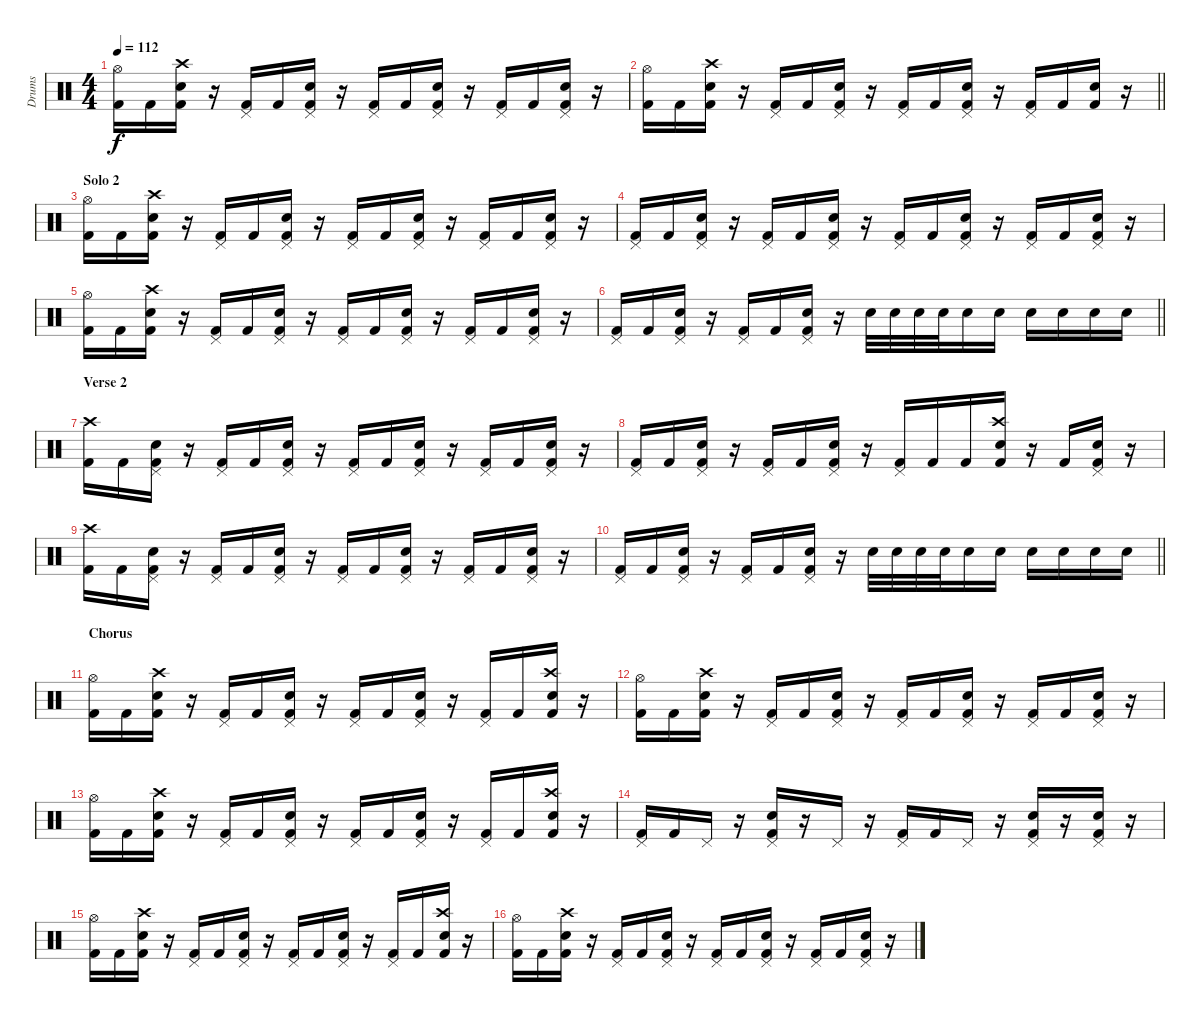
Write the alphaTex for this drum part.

\track ("Drums" "Drums") {instrument percussion}
\staff {score}
\articulation defaults
\ts (4 4)
\tempo 112
\clef neutral
\ks c
("Hi-Hat (open)" "Kick (hit) 2").16{dy f} "Kick (hit) 2".16 ("Crash high (hit)" "Snare (hit) 2" "Kick (hit) 2").16 r.16 ("Pedal Hi-Hat (hit)" "Kick (hit) 2").16 "Kick (hit) 2".16 ("Pedal Hi-Hat (hit)" "Snare (hit) 2" "Kick (hit) 2").16 r.16 ("Pedal Hi-Hat (hit)" "Kick (hit) 2").16 "Kick (hit) 2".16 ("Pedal Hi-Hat (hit)" "Snare (hit) 2" "Kick (hit) 2").16 r.16 ("Pedal Hi-Hat (hit)" "Kick (hit) 2").16 "Kick (hit) 2".16 ("Pedal Hi-Hat (hit)" "Snare (hit) 2" "Kick (hit) 2").16 r.16 |
\barLineRight lightlight
("Hi-Hat (open)" "Kick (hit) 2").16 "Kick (hit) 2".16 ("Crash high (hit)" "Snare (hit) 2" "Kick (hit) 2").16 r.16 ("Pedal Hi-Hat (hit)" "Kick (hit) 2").16 "Kick (hit) 2".16 ("Pedal Hi-Hat (hit)" "Snare (hit) 2" "Kick (hit) 2").16 r.16 ("Pedal Hi-Hat (hit)" "Kick (hit) 2").16 "Kick (hit) 2".16 ("Pedal Hi-Hat (hit)" "Snare (hit) 2" "Kick (hit) 2").16 r.16 ("Pedal Hi-Hat (hit)" "Kick (hit) 2").16 "Kick (hit) 2".16 ("Snare (hit) 2" "Kick (hit) 2").16 r.16 |
\section ("" "Solo 2")
("Hi-Hat (open)" "Kick (hit) 2").16 "Kick (hit) 2".16 ("Crash high (hit)" "Snare (hit) 2" "Kick (hit) 2").16 r.16 ("Pedal Hi-Hat (hit)" "Kick (hit) 2").16 "Kick (hit) 2".16 ("Pedal Hi-Hat (hit)" "Snare (hit) 2" "Kick (hit) 2").16 r.16 ("Pedal Hi-Hat (hit)" "Kick (hit) 2").16 "Kick (hit) 2".16 ("Pedal Hi-Hat (hit)" "Snare (hit) 2" "Kick (hit) 2").16 r.16 ("Pedal Hi-Hat (hit)" "Kick (hit) 2").16 "Kick (hit) 2".16 ("Pedal Hi-Hat (hit)" "Snare (hit) 2" "Kick (hit) 2").16 r.16 |
("Pedal Hi-Hat (hit)" "Kick (hit) 2").16 "Kick (hit) 2".16 ("Pedal Hi-Hat (hit)" "Snare (hit) 2" "Kick (hit) 2").16 r.16 ("Pedal Hi-Hat (hit)" "Kick (hit) 2").16 "Kick (hit) 2".16 ("Pedal Hi-Hat (hit)" "Snare (hit) 2" "Kick (hit) 2").16 r.16 ("Pedal Hi-Hat (hit)" "Kick (hit) 2").16 "Kick (hit) 2".16 ("Pedal Hi-Hat (hit)" "Snare (hit) 2" "Kick (hit) 2").16 r.16 ("Pedal Hi-Hat (hit)" "Kick (hit) 2").16 "Kick (hit) 2".16 ("Pedal Hi-Hat (hit)" "Snare (hit) 2" "Kick (hit) 2").16 r.16 |
("Hi-Hat (open)" "Kick (hit) 2").16 "Kick (hit) 2".16 ("Crash high (hit)" "Snare (hit) 2" "Kick (hit) 2").16 r.16 ("Pedal Hi-Hat (hit)" "Kick (hit) 2").16 "Kick (hit) 2".16 ("Pedal Hi-Hat (hit)" "Snare (hit) 2" "Kick (hit) 2").16 r.16 ("Pedal Hi-Hat (hit)" "Kick (hit) 2").16 "Kick (hit) 2".16 ("Pedal Hi-Hat (hit)" "Snare (hit) 2" "Kick (hit) 2").16 r.16 ("Pedal Hi-Hat (hit)" "Kick (hit) 2").16 "Kick (hit) 2".16 ("Pedal Hi-Hat (hit)" "Snare (hit) 2" "Kick (hit) 2").16 r.16 |
\barLineRight lightlight
("Pedal Hi-Hat (hit)" "Kick (hit) 2").16 "Kick (hit) 2".16 ("Pedal Hi-Hat (hit)" "Snare (hit) 2" "Kick (hit) 2").16 r.16 ("Pedal Hi-Hat (hit)" "Kick (hit) 2").16 "Kick (hit) 2".16 ("Pedal Hi-Hat (hit)" "Snare (hit) 2" "Kick (hit) 2").16 r.16 "Snare (hit) 2".32 "Snare (hit) 2".32 "Snare (hit) 2".32 "Snare (hit) 2".32 "Snare (hit) 2".16 "Snare (hit) 2".16 "Snare (hit) 2".16 "Snare (hit) 2".16 "Snare (hit) 2".16 "Snare (hit) 2".16 |
\section ("" "Verse 2")
("Crash high (hit)" "Kick (hit) 2").16 "Kick (hit) 2".16 ("Pedal Hi-Hat (hit)" "Snare (hit) 2" "Kick (hit) 2").16 r.16 ("Pedal Hi-Hat (hit)" "Kick (hit) 2").16 "Kick (hit) 2".16 ("Pedal Hi-Hat (hit)" "Snare (hit) 2" "Kick (hit) 2").16 r.16 ("Pedal Hi-Hat (hit)" "Kick (hit) 2").16 "Kick (hit) 2".16 ("Pedal Hi-Hat (hit)" "Snare (hit) 2" "Kick (hit) 2").16 r.16 ("Pedal Hi-Hat (hit)" "Kick (hit) 2").16 "Kick (hit) 2".16 ("Pedal Hi-Hat (hit)" "Snare (hit) 2" "Kick (hit) 2").16 r.16 |
("Pedal Hi-Hat (hit)" "Kick (hit) 2").16 "Kick (hit) 2".16 ("Pedal Hi-Hat (hit)" "Snare (hit) 2" "Kick (hit) 2").16 r.16 ("Pedal Hi-Hat (hit)" "Kick (hit) 2").16 "Kick (hit) 2".16 ("Pedal Hi-Hat (hit)" "Snare (hit) 2" "Kick (hit) 2").16 r.16 ("Pedal Hi-Hat (hit)" "Kick (hit) 2").16 "Kick (hit) 2".16 "Kick (hit) 2".16 ("Crash high (hit)" "Snare (hit) 2" "Kick (hit) 2").16 r.16 "Kick (hit) 2".16 ("Pedal Hi-Hat (hit)" "Snare (hit) 2" "Kick (hit) 2").16 r.16 |
("Crash high (hit)" "Kick (hit) 2").16 "Kick (hit) 2".16 ("Pedal Hi-Hat (hit)" "Snare (hit) 2" "Kick (hit) 2").16 r.16 ("Pedal Hi-Hat (hit)" "Kick (hit) 2").16 "Kick (hit) 2".16 ("Pedal Hi-Hat (hit)" "Snare (hit) 2" "Kick (hit) 2").16 r.16 ("Pedal Hi-Hat (hit)" "Kick (hit) 2").16 "Kick (hit) 2".16 ("Pedal Hi-Hat (hit)" "Snare (hit) 2" "Kick (hit) 2").16 r.16 ("Pedal Hi-Hat (hit)" "Kick (hit) 2").16 "Kick (hit) 2".16 ("Pedal Hi-Hat (hit)" "Snare (hit) 2" "Kick (hit) 2").16 r.16 |
\barLineRight lightlight
("Pedal Hi-Hat (hit)" "Kick (hit) 2").16 "Kick (hit) 2".16 ("Pedal Hi-Hat (hit)" "Snare (hit) 2" "Kick (hit) 2").16 r.16 ("Pedal Hi-Hat (hit)" "Kick (hit) 2").16 "Kick (hit) 2".16 ("Pedal Hi-Hat (hit)" "Snare (hit) 2" "Kick (hit) 2").16 r.16 "Snare (hit) 2".32 "Snare (hit) 2".32 "Snare (hit) 2".32 "Snare (hit) 2".32 "Snare (hit) 2".16 "Snare (hit) 2".16 "Snare (hit) 2".16 "Snare (hit) 2".16 "Snare (hit) 2".16 "Snare (hit) 2".16 |
\section ("" "Chorus")
("Hi-Hat (open)" "Kick (hit) 2").16 "Kick (hit) 2".16 ("Crash high (hit)" "Snare (hit) 2" "Kick (hit) 2").16 r.16 ("Pedal Hi-Hat (hit)" "Kick (hit) 2").16 "Kick (hit) 2".16 ("Pedal Hi-Hat (hit)" "Snare (hit) 2" "Kick (hit) 2").16 r.16 ("Pedal Hi-Hat (hit)" "Kick (hit) 2").16 "Kick (hit) 2".16 ("Pedal Hi-Hat (hit)" "Snare (hit) 2" "Kick (hit) 2").16 r.16 ("Pedal Hi-Hat (hit)" "Kick (hit) 2").16 "Kick (hit) 2".16 ("Crash high (hit)" "Snare (hit) 2" "Kick (hit) 2").16 r.16 |
("Hi-Hat (open)" "Kick (hit) 2").16 "Kick (hit) 2".16 ("Crash high (hit)" "Snare (hit) 2" "Kick (hit) 2").16 r.16 ("Pedal Hi-Hat (hit)" "Kick (hit) 2").16 "Kick (hit) 2".16 ("Pedal Hi-Hat (hit)" "Snare (hit) 2" "Kick (hit) 2").16 r.16 ("Pedal Hi-Hat (hit)" "Kick (hit) 2").16 "Kick (hit) 2".16 ("Pedal Hi-Hat (hit)" "Snare (hit) 2" "Kick (hit) 2").16 r.16 ("Pedal Hi-Hat (hit)" "Kick (hit) 2").16 "Kick (hit) 2".16 ("Pedal Hi-Hat (hit)" "Snare (hit) 2" "Kick (hit) 2").16 r.16 |
("Hi-Hat (open)" "Kick (hit) 2").16 "Kick (hit) 2".16 ("Crash high (hit)" "Snare (hit) 2" "Kick (hit) 2").16 r.16 ("Pedal Hi-Hat (hit)" "Kick (hit) 2").16 "Kick (hit) 2".16 ("Pedal Hi-Hat (hit)" "Snare (hit) 2" "Kick (hit) 2").16 r.16 ("Pedal Hi-Hat (hit)" "Kick (hit) 2").16 "Kick (hit) 2".16 ("Pedal Hi-Hat (hit)" "Snare (hit) 2" "Kick (hit) 2").16 r.16 ("Pedal Hi-Hat (hit)" "Kick (hit) 2").16 "Kick (hit) 2".16 ("Crash high (hit)" "Snare (hit) 2" "Kick (hit) 2").16 r.16 |
("Pedal Hi-Hat (hit)" "Kick (hit) 2").16 "Kick (hit) 2".16 "Pedal Hi-Hat (hit)".16 r.16 ("Pedal Hi-Hat (hit)" "Snare (hit) 2" "Kick (hit) 2").16 r.16 "Pedal Hi-Hat (hit)".16 r.16 ("Pedal Hi-Hat (hit)" "Kick (hit) 2").16 "Kick (hit) 2".16 "Pedal Hi-Hat (hit)".16 r.16 ("Pedal Hi-Hat (hit)" "Snare (hit) 2" "Kick (hit) 2").16 r.16 ("Pedal Hi-Hat (hit)" "Snare (hit) 2" "Kick (hit) 2").16 r.16 |
("Hi-Hat (open)" "Kick (hit) 2").16 "Kick (hit) 2".16 ("Crash high (hit)" "Snare (hit) 2" "Kick (hit) 2").16 r.16 ("Pedal Hi-Hat (hit)" "Kick (hit) 2").16 "Kick (hit) 2".16 ("Pedal Hi-Hat (hit)" "Snare (hit) 2" "Kick (hit) 2").16 r.16 ("Pedal Hi-Hat (hit)" "Kick (hit) 2").16 "Kick (hit) 2".16 ("Pedal Hi-Hat (hit)" "Snare (hit) 2" "Kick (hit) 2").16 r.16 ("Pedal Hi-Hat (hit)" "Kick (hit) 2").16 "Kick (hit) 2".16 ("Crash high (hit)" "Snare (hit) 2" "Kick (hit) 2").16 r.16 |
("Hi-Hat (open)" "Kick (hit) 2").16 "Kick (hit) 2".16 ("Crash high (hit)" "Snare (hit) 2" "Kick (hit) 2").16 r.16 ("Pedal Hi-Hat (hit)" "Kick (hit) 2").16 "Kick (hit) 2".16 ("Pedal Hi-Hat (hit)" "Snare (hit) 2" "Kick (hit) 2").16 r.16 ("Pedal Hi-Hat (hit)" "Kick (hit) 2").16 "Kick (hit) 2".16 ("Pedal Hi-Hat (hit)" "Snare (hit) 2" "Kick (hit) 2").16 r.16 ("Pedal Hi-Hat (hit)" "Kick (hit) 2").16 "Kick (hit) 2".16 ("Pedal Hi-Hat (hit)" "Snare (hit) 2" "Kick (hit) 2").16 r.16
